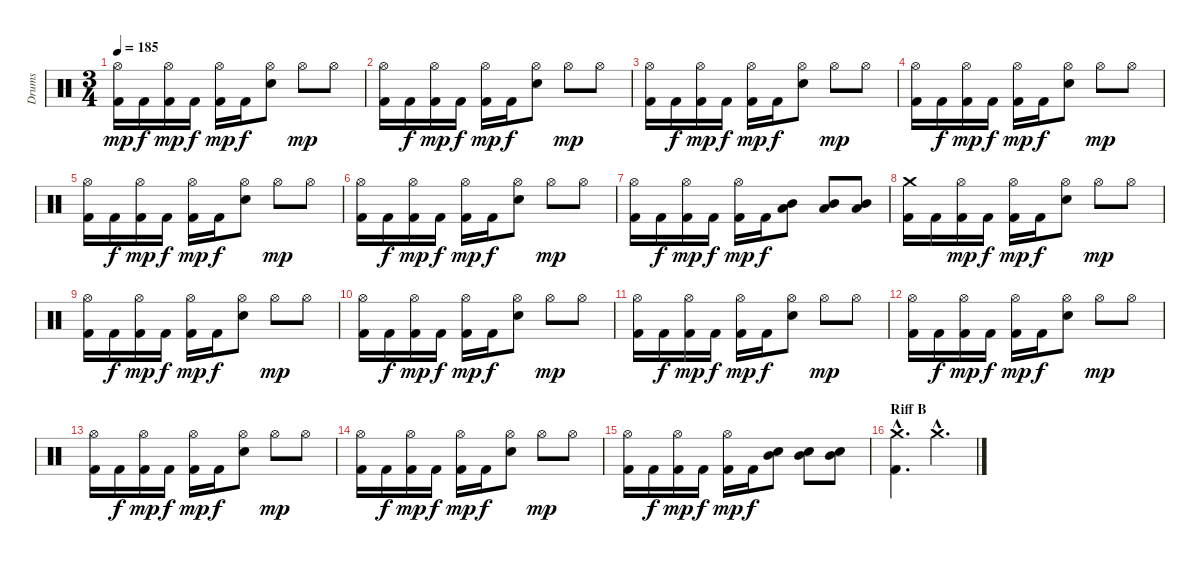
\track ("Drums" "Drums") {instrument percussion}
\staff {score}
\articulation defaults
\ts (3 4)
\tempo 185
\clef neutral
\ks c
("Hi-Hat (open)" "Kick (hit) 2").16{dy mp} "Kick (hit) 2".16{dy f} ("Hi-Hat (open)" "Kick (hit) 2").16{dy mp} "Kick (hit) 2".16{dy f} ("Hi-Hat (open)" "Kick (hit) 2").16{dy mp} "Kick (hit) 2".16{dy f} ("Hi-Hat (open)" "Electric Snare (hit)").8 "Hi-Hat (open)".8{dy mp} "Hi-Hat (open)".8 |
("Hi-Hat (open)" "Kick (hit) 2").16 "Kick (hit) 2".16{dy f} ("Hi-Hat (open)" "Kick (hit) 2").16{dy mp} "Kick (hit) 2".16{dy f} ("Hi-Hat (open)" "Kick (hit) 2").16{dy mp} "Kick (hit) 2".16{dy f} ("Hi-Hat (open)" "Electric Snare (hit)").8 "Hi-Hat (open)".8{dy mp} "Hi-Hat (open)".8 |
("Hi-Hat (open)" "Kick (hit) 2").16 "Kick (hit) 2".16{dy f} ("Hi-Hat (open)" "Kick (hit) 2").16{dy mp} "Kick (hit) 2".16{dy f} ("Hi-Hat (open)" "Kick (hit) 2").16{dy mp} "Kick (hit) 2".16{dy f} ("Hi-Hat (open)" "Electric Snare (hit)").8 "Hi-Hat (open)".8{dy mp} "Hi-Hat (open)".8 |
("Hi-Hat (open)" "Kick (hit) 2").16 "Kick (hit) 2".16{dy f} ("Hi-Hat (open)" "Kick (hit) 2").16{dy mp} "Kick (hit) 2".16{dy f} ("Hi-Hat (open)" "Kick (hit) 2").16{dy mp} "Kick (hit) 2".16{dy f} ("Hi-Hat (open)" "Electric Snare (hit)").8 "Hi-Hat (open)".8{dy mp} "Hi-Hat (open)".8 |
("Hi-Hat (open)" "Kick (hit) 2").16 "Kick (hit) 2".16{dy f} ("Hi-Hat (open)" "Kick (hit) 2").16{dy mp} "Kick (hit) 2".16{dy f} ("Hi-Hat (open)" "Kick (hit) 2").16{dy mp} "Kick (hit) 2".16{dy f} ("Hi-Hat (open)" "Electric Snare (hit)").8 "Hi-Hat (open)".8{dy mp} "Hi-Hat (open)".8 |
("Hi-Hat (open)" "Kick (hit) 2").16 "Kick (hit) 2".16{dy f} ("Hi-Hat (open)" "Kick (hit) 2").16{dy mp} "Kick (hit) 2".16{dy f} ("Hi-Hat (open)" "Kick (hit) 2").16{dy mp} "Kick (hit) 2".16{dy f} ("Hi-Hat (open)" "Electric Snare (hit)").8 "Hi-Hat (open)".8{dy mp} "Hi-Hat (open)".8 |
("Hi-Hat (open)" "Kick (hit) 2").16 "Kick (hit) 2".16{dy f} ("Hi-Hat (open)" "Kick (hit) 2").16{dy mp} "Kick (hit) 2".16{dy f} ("Hi-Hat (open)" "Kick (hit) 2").16{dy mp} "Kick (hit) 2".16{dy f} ("Mid Tom (hit)" "Low Tom (hit)").8 ("Mid Tom (hit)" "Low Tom (hit)").8 ("Mid Tom (hit)" "Low Tom (hit)").8 |
("Crash medium (hit)" "Kick (hit) 2").16 "Kick (hit) 2".16 ("Hi-Hat (open)" "Kick (hit) 2").16{dy mp} "Kick (hit) 2".16{dy f} ("Hi-Hat (open)" "Kick (hit) 2").16{dy mp} "Kick (hit) 2".16{dy f} ("Hi-Hat (open)" "Electric Snare (hit)").8 "Hi-Hat (open)".8{dy mp} "Hi-Hat (open)".8 |
("Hi-Hat (open)" "Kick (hit) 2").16 "Kick (hit) 2".16{dy f} ("Hi-Hat (open)" "Kick (hit) 2").16{dy mp} "Kick (hit) 2".16{dy f} ("Hi-Hat (open)" "Kick (hit) 2").16{dy mp} "Kick (hit) 2".16{dy f} ("Hi-Hat (open)" "Electric Snare (hit)").8 "Hi-Hat (open)".8{dy mp} "Hi-Hat (open)".8 |
("Hi-Hat (open)" "Kick (hit) 2").16 "Kick (hit) 2".16{dy f} ("Hi-Hat (open)" "Kick (hit) 2").16{dy mp} "Kick (hit) 2".16{dy f} ("Hi-Hat (open)" "Kick (hit) 2").16{dy mp} "Kick (hit) 2".16{dy f} ("Hi-Hat (open)" "Electric Snare (hit)").8 "Hi-Hat (open)".8{dy mp} "Hi-Hat (open)".8 |
("Hi-Hat (open)" "Kick (hit) 2").16 "Kick (hit) 2".16{dy f} ("Hi-Hat (open)" "Kick (hit) 2").16{dy mp} "Kick (hit) 2".16{dy f} ("Hi-Hat (open)" "Kick (hit) 2").16{dy mp} "Kick (hit) 2".16{dy f} ("Hi-Hat (open)" "Electric Snare (hit)").8 "Hi-Hat (open)".8{dy mp} "Hi-Hat (open)".8 |
("Hi-Hat (open)" "Kick (hit) 2").16 "Kick (hit) 2".16{dy f} ("Hi-Hat (open)" "Kick (hit) 2").16{dy mp} "Kick (hit) 2".16{dy f} ("Hi-Hat (open)" "Kick (hit) 2").16{dy mp} "Kick (hit) 2".16{dy f} ("Hi-Hat (open)" "Electric Snare (hit)").8 "Hi-Hat (open)".8{dy mp} "Hi-Hat (open)".8 |
("Hi-Hat (open)" "Kick (hit) 2").16 "Kick (hit) 2".16{dy f} ("Hi-Hat (open)" "Kick (hit) 2").16{dy mp} "Kick (hit) 2".16{dy f} ("Hi-Hat (open)" "Kick (hit) 2").16{dy mp} "Kick (hit) 2".16{dy f} ("Hi-Hat (open)" "Electric Snare (hit)").8 "Hi-Hat (open)".8{dy mp} "Hi-Hat (open)".8 |
("Hi-Hat (open)" "Kick (hit) 2").16 "Kick (hit) 2".16{dy f} ("Hi-Hat (open)" "Kick (hit) 2").16{dy mp} "Kick (hit) 2".16{dy f} ("Hi-Hat (open)" "Kick (hit) 2").16{dy mp} "Kick (hit) 2".16{dy f} ("Hi-Hat (open)" "Electric Snare (hit)").8 "Hi-Hat (open)".8{dy mp} "Hi-Hat (open)".8 |
("Hi-Hat (open)" "Kick (hit) 2").16 "Kick (hit) 2".16{dy f} ("Hi-Hat (open)" "Kick (hit) 2").16{dy mp} "Kick (hit) 2".16{dy f} ("Hi-Hat (open)" "Kick (hit) 2").16{dy mp} "Kick (hit) 2".16{dy f} ("Mid Tom (hit)" "Electric Snare (hit)").8 ("Mid Tom (hit)" "Electric Snare (hit)").8 ("Mid Tom (hit)" "Electric Snare (hit)").8 |
\section ("" "Riff B")
("Crash medium (hit)"{hac} "Kick (hit) 2"{hac}).4{d} "Crash medium (hit)"{hac}.4{d}
